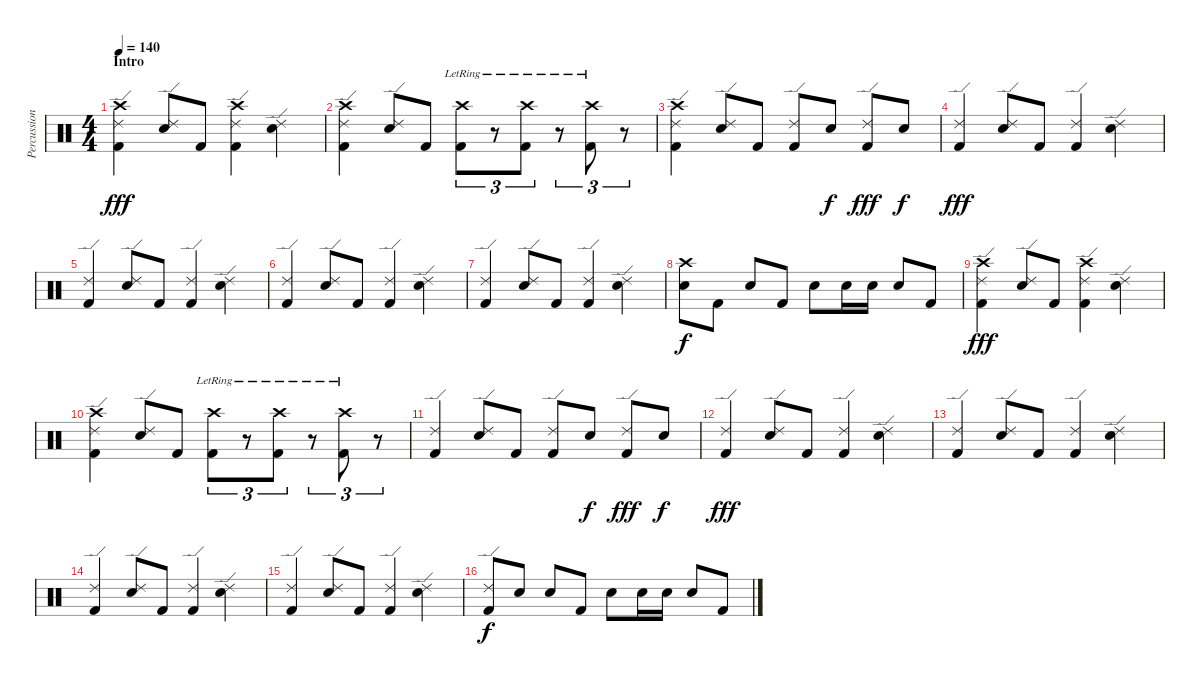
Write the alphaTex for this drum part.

\track ("Percussion" "Percussion") {instrument percussion}
\staff {score}
\articulation defaults
\ts (4 4)
\section ("" "Intro")
\tempo 140
\clef neutral
\ks c
("Crash high (hit)" "Ride (edge) 2" "Kick (hit) 2").4{dy fff} ("Ride (edge) 2" "Electric Snare (hit)").8 "Kick (hit) 2".8 ("Crash high (hit)" "Ride (edge) 2" "Kick (hit) 2").4 ("Ride (edge) 2" "Electric Snare (hit)").4 |
("Crash high (hit)" "Ride (edge) 2" "Kick (hit) 2").4 ("Ride (edge) 2" "Electric Snare (hit)").8 "Kick (hit) 2".8 ("Crash high (hit)"{lr} "Kick (hit) 2").8{tu (3 2)} r.8{tu (3 2)} ("Crash high (hit)"{lr} "Kick (hit) 2").8{tu (3 2)} r.8{tu (3 2)} ("Crash high (hit)"{lr} "Kick (hit) 2").8{tu (3 2)} r.8{tu (3 2)} |
("Crash high (hit)" "Ride (edge) 2" "Kick (hit) 2").4 ("Ride (edge) 2" "Electric Snare (hit)").8 "Kick (hit) 2".8 ("Ride (edge) 2" "Kick (hit) 2").8 "Electric Snare (hit)".8{dy f} ("Ride (edge) 2" "Kick (hit) 2").8{dy fff} "Electric Snare (hit)".8{dy f} |
("Ride (edge) 2" "Kick (hit) 2").4{dy fff} ("Ride (edge) 2" "Electric Snare (hit)").8 "Kick (hit) 2".8 ("Ride (edge) 2" "Kick (hit) 2").4 ("Ride (edge) 2" "Electric Snare (hit)").4 |
("Ride (edge) 2" "Kick (hit) 2").4 ("Ride (edge) 2" "Electric Snare (hit)").8 "Kick (hit) 2".8 ("Ride (edge) 2" "Kick (hit) 2").4 ("Ride (edge) 2" "Electric Snare (hit)").4 |
("Ride (edge) 2" "Kick (hit) 2").4 ("Ride (edge) 2" "Electric Snare (hit)").8 "Kick (hit) 2".8 ("Ride (edge) 2" "Kick (hit) 2").4 ("Ride (edge) 2" "Electric Snare (hit)").4 |
("Ride (edge) 2" "Kick (hit) 2").4 ("Ride (edge) 2" "Electric Snare (hit)").8 "Kick (hit) 2".8 ("Ride (edge) 2" "Kick (hit) 2").4 ("Ride (edge) 2" "Electric Snare (hit)").4 |
("Crash high (hit)" "Electric Snare (hit)").8{dy f} "Kick (hit) 2".8 "Electric Snare (hit)".8 "Kick (hit) 2".8 "Electric Snare (hit)".8 "Electric Snare (hit)".16 "Electric Snare (hit)".16 "Electric Snare (hit)".8 "Kick (hit) 2".8 |
("Crash high (hit)" "Ride (edge) 2" "Kick (hit) 2").4{dy fff} ("Ride (edge) 2" "Electric Snare (hit)").8 "Kick (hit) 2".8 ("Crash high (hit)" "Ride (edge) 2" "Kick (hit) 2").4 ("Ride (edge) 2" "Electric Snare (hit)").4 |
("Crash high (hit)" "Ride (edge) 2" "Kick (hit) 2").4 ("Ride (edge) 2" "Electric Snare (hit)").8 "Kick (hit) 2".8 ("Crash high (hit)"{lr} "Kick (hit) 2").8{tu (3 2)} r.8{tu (3 2)} ("Crash high (hit)"{lr} "Kick (hit) 2").8{tu (3 2)} r.8{tu (3 2)} ("Crash high (hit)"{lr} "Kick (hit) 2").8{tu (3 2)} r.8{tu (3 2)} |
("Ride (edge) 2" "Kick (hit) 2").4 ("Ride (edge) 2" "Electric Snare (hit)").8 "Kick (hit) 2".8 ("Ride (edge) 2" "Kick (hit) 2").8 "Electric Snare (hit)".8{dy f} ("Ride (edge) 2" "Kick (hit) 2").8{dy fff} "Electric Snare (hit)".8{dy f} |
("Ride (edge) 2" "Kick (hit) 2").4{dy fff} ("Ride (edge) 2" "Electric Snare (hit)").8 "Kick (hit) 2".8 ("Ride (edge) 2" "Kick (hit) 2").4 ("Ride (edge) 2" "Electric Snare (hit)").4 |
("Ride (edge) 2" "Kick (hit) 2").4 ("Ride (edge) 2" "Electric Snare (hit)").8 "Kick (hit) 2".8 ("Ride (edge) 2" "Kick (hit) 2").4 ("Ride (edge) 2" "Electric Snare (hit)").4 |
("Ride (edge) 2" "Kick (hit) 2").4 ("Ride (edge) 2" "Electric Snare (hit)").8 "Kick (hit) 2".8 ("Ride (edge) 2" "Kick (hit) 2").4 ("Ride (edge) 2" "Electric Snare (hit)").4 |
("Ride (edge) 2" "Kick (hit) 2").4 ("Ride (edge) 2" "Electric Snare (hit)").8 "Kick (hit) 2".8 ("Ride (edge) 2" "Kick (hit) 2").4 ("Ride (edge) 2" "Electric Snare (hit)").4 |
("Ride (edge) 2" "Kick (hit) 2").8{dy f} "Electric Snare (hit)".8 "Electric Snare (hit)".8 "Kick (hit) 2".8 "Electric Snare (hit)".8 "Electric Snare (hit)".16 "Electric Snare (hit)".16 "Electric Snare (hit)".8 "Kick (hit) 2".8
